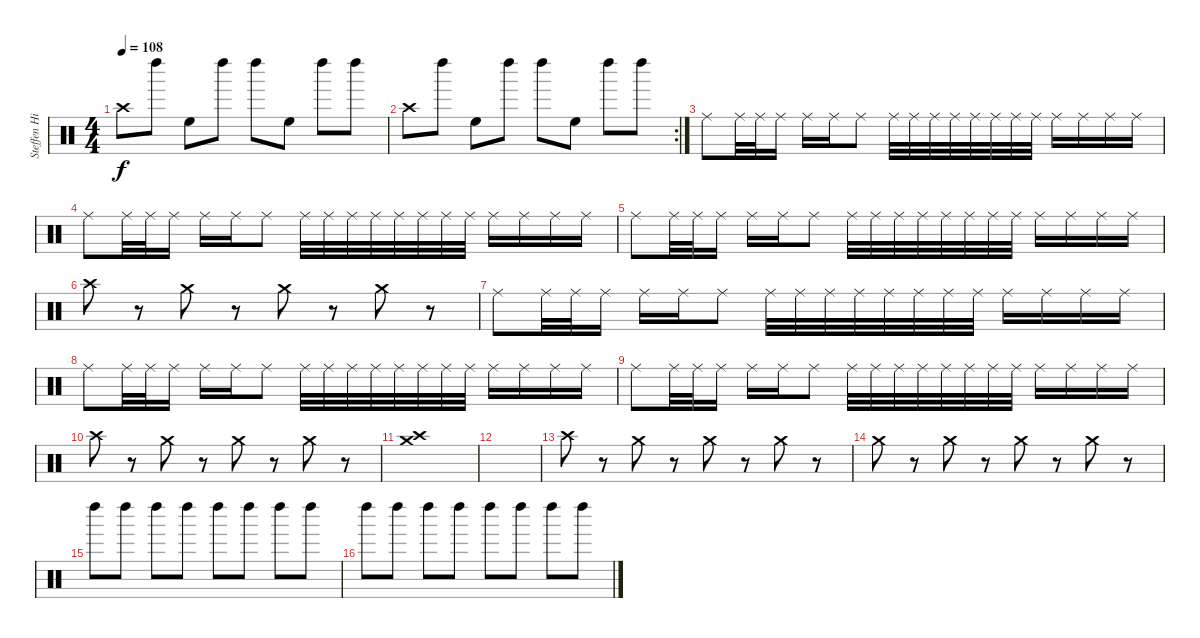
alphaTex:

\track ("Steffen Highhead" "Steffen Hi") {instrument percussion}
\staff {score}
\articulation defaults
\ts (4 4)
\tempo 108
\clef neutral
\ks c "Crash high (hit)".8{dy f} "Left Maraca (hit)".8 "High Floor Tom (hit)".8 "Left Maraca (hit)".8 "Left Maraca (hit)".8 "High Floor Tom (hit)".8 "Left Maraca (hit)".8 "Left Maraca (hit)".8
|
\rc 2 "Crash high (hit)".8 "Left Maraca (hit)".8 "High Floor Tom (hit)".8 "Left Maraca (hit)".8 "Left Maraca (hit)".8 "High Floor Tom (hit)".8 "Left Maraca (hit)".8 "Left Maraca (hit)".8
|
"Ride (middle)".8 "Ride (middle)".32 "Ride (middle)".32 "Ride (middle)".16 "Ride (middle)".16 "Ride (middle)".16 "Ride (middle)".8 "Ride (middle)".32 "Ride (middle)".32 "Ride (middle)".32 "Ride (middle)".32 "Ride (middle)".32 "Ride (middle)".32 "Ride (middle)".32 "Ride (middle)".32 "Ride (middle)".16 "Ride (middle)".16 "Ride (middle)".16 "Ride (middle)".16 |
"Ride (middle)".8 "Ride (middle)".32 "Ride (middle)".32 "Ride (middle)".16 "Ride (middle)".16 "Ride (middle)".16 "Ride (middle)".8 "Ride (middle)".32 "Ride (middle)".32 "Ride (middle)".32 "Ride (middle)".32 "Ride (middle)".32 "Ride (middle)".32 "Ride (middle)".32 "Ride (middle)".32 "Ride (middle)".16 "Ride (middle)".16 "Ride (middle)".16 "Ride (middle)".16 |
"Ride (middle)".8 "Ride (middle)".32 "Ride (middle)".32 "Ride (middle)".16 "Ride (middle)".16 "Ride (middle)".16 "Ride (middle)".8 "Ride (middle)".32 "Ride (middle)".32 "Ride (middle)".32 "Ride (middle)".32 "Ride (middle)".32 "Ride (middle)".32 "Ride (middle)".32 "Ride (middle)".32 "Ride (middle)".16 "Ride (middle)".16 "Ride (middle)".16 "Ride (middle)".16 |
"Crash high (hit)".8 r.8 "Crash medium (hit)".8 r.8 "Crash medium (hit)".8 r.8 "Crash medium (hit)".8 r.8 |
"Ride (middle)".8 "Ride (middle)".32 "Ride (middle)".32 "Ride (middle)".16 "Ride (middle)".16 "Ride (middle)".16 "Ride (middle)".8 "Ride (middle)".32 "Ride (middle)".32 "Ride (middle)".32 "Ride (middle)".32 "Ride (middle)".32 "Ride (middle)".32 "Ride (middle)".32 "Ride (middle)".32 "Ride (middle)".16 "Ride (middle)".16 "Ride (middle)".16 "Ride (middle)".16 |
"Ride (middle)".8 "Ride (middle)".32 "Ride (middle)".32 "Ride (middle)".16 "Ride (middle)".16 "Ride (middle)".16 "Ride (middle)".8 "Ride (middle)".32 "Ride (middle)".32 "Ride (middle)".32 "Ride (middle)".32 "Ride (middle)".32 "Ride (middle)".32 "Ride (middle)".32 "Ride (middle)".32 "Ride (middle)".16 "Ride (middle)".16 "Ride (middle)".16 "Ride (middle)".16 |
"Ride (middle)".8 "Ride (middle)".32 "Ride (middle)".32 "Ride (middle)".16 "Ride (middle)".16 "Ride (middle)".16 "Ride (middle)".8 "Ride (middle)".32 "Ride (middle)".32 "Ride (middle)".32 "Ride (middle)".32 "Ride (middle)".32 "Ride (middle)".32 "Ride (middle)".32 "Ride (middle)".32 "Ride (middle)".16 "Ride (middle)".16 "Ride (middle)".16 "Ride (middle)".16 |
"Crash high (hit)".8 r.8 "Crash medium (hit)".8 r.8 "Crash medium (hit)".8 r.8 "Crash medium (hit)".8 r.8 |
("Crash medium (hit)" "Crash high (hit)").1 |
|
"Crash high (hit)".8 r.8 "Crash medium (hit)".8 r.8 "Crash medium (hit)".8 r.8 "Crash medium (hit)".8 r.8 |
"Crash medium (hit)".8 r.8 "Crash medium (hit)".8 r.8 "Crash medium (hit)".8 r.8 "Crash medium (hit)".8 r.8 |
"Left Maraca (hit)".8 "Left Maraca (hit)".8 "Left Maraca (hit)".8 "Left Maraca (hit)".8 "Left Maraca (hit)".8 "Left Maraca (hit)".8 "Left Maraca (hit)".8 "Left Maraca (hit)".8 |
"Left Maraca (hit)".8 "Left Maraca (hit)".8 "Left Maraca (hit)".8 "Left Maraca (hit)".8 "Left Maraca (hit)".8 "Left Maraca (hit)".8 "Left Maraca (hit)".8 "Left Maraca (hit)".8
